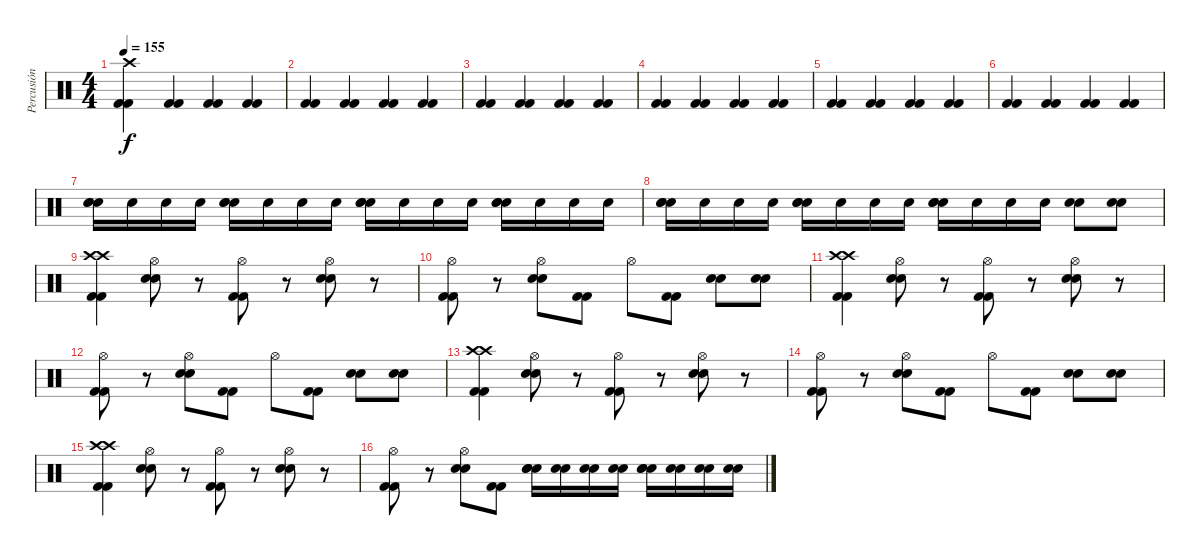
\track ("Percusión" "Percusión") {instrument percussion}
\staff {score}
\articulation defaults
\ts (4 4)
\tempo 155
\clef neutral
\ks c
("Crash high (hit)" "Kick (hit) 2" "Kick (hit) 2").4{dy f} ("Kick (hit) 2" "Kick (hit) 2").4 ("Kick (hit) 2" "Kick (hit) 2").4 ("Kick (hit) 2" "Kick (hit) 2").4 |
("Kick (hit) 2" "Kick (hit) 2").4 ("Kick (hit) 2" "Kick (hit) 2").4 ("Kick (hit) 2" "Kick (hit) 2").4 ("Kick (hit) 2" "Kick (hit) 2").4 |
("Kick (hit) 2" "Kick (hit) 2").4 ("Kick (hit) 2" "Kick (hit) 2").4 ("Kick (hit) 2" "Kick (hit) 2").4 ("Kick (hit) 2" "Kick (hit) 2").4 |
("Kick (hit) 2" "Kick (hit) 2").4 ("Kick (hit) 2" "Kick (hit) 2").4 ("Kick (hit) 2" "Kick (hit) 2").4 ("Kick (hit) 2" "Kick (hit) 2").4 |
("Kick (hit) 2" "Kick (hit) 2").4 ("Kick (hit) 2" "Kick (hit) 2").4 ("Kick (hit) 2" "Kick (hit) 2").4 ("Kick (hit) 2" "Kick (hit) 2").4 |
("Kick (hit) 2" "Kick (hit) 2").4 ("Kick (hit) 2" "Kick (hit) 2").4 ("Kick (hit) 2" "Kick (hit) 2").4 ("Kick (hit) 2" "Kick (hit) 2").4 |
("Electric Snare (hit)" "Electric Snare (hit)" "Electric Snare (hit)").16 "Electric Snare (hit)".16 "Electric Snare (hit)".16 "Electric Snare (hit)".16 ("Electric Snare (hit)" "Electric Snare (hit)" "Electric Snare (hit)").16 "Electric Snare (hit)".16 "Electric Snare (hit)".16 "Electric Snare (hit)".16 ("Electric Snare (hit)" "Electric Snare (hit)" "Electric Snare (hit)").16 "Electric Snare (hit)".16 "Electric Snare (hit)".16 "Electric Snare (hit)".16 ("Electric Snare (hit)" "Electric Snare (hit)" "Electric Snare (hit)").16 "Electric Snare (hit)".16 "Electric Snare (hit)".16 "Electric Snare (hit)".16 |
("Electric Snare (hit)" "Electric Snare (hit)" "Electric Snare (hit)").16 "Electric Snare (hit)".16 "Electric Snare (hit)".16 "Electric Snare (hit)".16 ("Electric Snare (hit)" "Electric Snare (hit)" "Electric Snare (hit)").16 "Electric Snare (hit)".16 "Electric Snare (hit)".16 "Electric Snare (hit)".16 ("Electric Snare (hit)" "Electric Snare (hit)" "Electric Snare (hit)").16 "Electric Snare (hit)".16 "Electric Snare (hit)".16 "Electric Snare (hit)".16 ("Electric Snare (hit)" "Electric Snare (hit)").8 ("Electric Snare (hit)" "Electric Snare (hit)").8 |
("Crash high (hit)" "Crash high (hit)" "Kick (hit) 2" "Kick (hit) 2").4 ("Hi-Hat (open)" "Electric Snare (hit)" "Electric Snare (hit)").8 r.8 ("Hi-Hat (open)" "Kick (hit) 2" "Kick (hit) 2").8 r.8 ("Hi-Hat (open)" "Electric Snare (hit)" "Electric Snare (hit)").8 r.8 |
("Hi-Hat (open)" "Kick (hit) 2" "Kick (hit) 2").8 r.8 ("Hi-Hat (open)" "Electric Snare (hit)" "Electric Snare (hit)").8 ("Kick (hit) 2" "Kick (hit) 2").8 "Hi-Hat (open)".8 ("Kick (hit) 2" "Kick (hit) 2").8 ("Electric Snare (hit)" "Electric Snare (hit)").8 ("Electric Snare (hit)" "Electric Snare (hit)").8 |
("Crash high (hit)" "Crash high (hit)" "Kick (hit) 2" "Kick (hit) 2").4 ("Hi-Hat (open)" "Electric Snare (hit)" "Electric Snare (hit)").8 r.8 ("Hi-Hat (open)" "Kick (hit) 2" "Kick (hit) 2").8 r.8 ("Hi-Hat (open)" "Electric Snare (hit)" "Electric Snare (hit)").8 r.8 |
("Hi-Hat (open)" "Kick (hit) 2" "Kick (hit) 2").8 r.8 ("Hi-Hat (open)" "Electric Snare (hit)" "Electric Snare (hit)").8 ("Kick (hit) 2" "Kick (hit) 2").8 "Hi-Hat (open)".8 ("Kick (hit) 2" "Kick (hit) 2").8 ("Electric Snare (hit)" "Electric Snare (hit)").8 ("Electric Snare (hit)" "Electric Snare (hit)").8 |
("Crash high (hit)" "Crash high (hit)" "Kick (hit) 2" "Kick (hit) 2").4 ("Hi-Hat (open)" "Electric Snare (hit)" "Electric Snare (hit)").8 r.8 ("Hi-Hat (open)" "Kick (hit) 2" "Kick (hit) 2").8 r.8 ("Hi-Hat (open)" "Electric Snare (hit)" "Electric Snare (hit)").8 r.8 |
("Hi-Hat (open)" "Kick (hit) 2" "Kick (hit) 2").8 r.8 ("Hi-Hat (open)" "Electric Snare (hit)" "Electric Snare (hit)").8 ("Kick (hit) 2" "Kick (hit) 2").8 "Hi-Hat (open)".8 ("Kick (hit) 2" "Kick (hit) 2").8 ("Electric Snare (hit)" "Electric Snare (hit)").8 ("Electric Snare (hit)" "Electric Snare (hit)").8 |
("Crash high (hit)" "Crash high (hit)" "Kick (hit) 2" "Kick (hit) 2").4 ("Hi-Hat (open)" "Electric Snare (hit)" "Electric Snare (hit)").8 r.8 ("Hi-Hat (open)" "Kick (hit) 2" "Kick (hit) 2").8 r.8 ("Hi-Hat (open)" "Electric Snare (hit)" "Electric Snare (hit)").8 r.8 |
("Hi-Hat (open)" "Kick (hit) 2" "Kick (hit) 2").8 r.8 ("Hi-Hat (open)" "Electric Snare (hit)" "Electric Snare (hit)").8 ("Kick (hit) 2" "Kick (hit) 2").8 ("Electric Snare (hit)" "Electric Snare (hit)" "Electric Snare (hit)").16 ("Electric Snare (hit)" "Electric Snare (hit)").16 ("Electric Snare (hit)" "Electric Snare (hit)").16 ("Electric Snare (hit)" "Electric Snare (hit)").16 ("Electric Snare (hit)" "Electric Snare (hit)" "Electric Snare (hit)").16 ("Electric Snare (hit)" "Electric Snare (hit)").16 ("Electric Snare (hit)" "Electric Snare (hit)").16 ("Electric Snare (hit)" "Electric Snare (hit)").16
